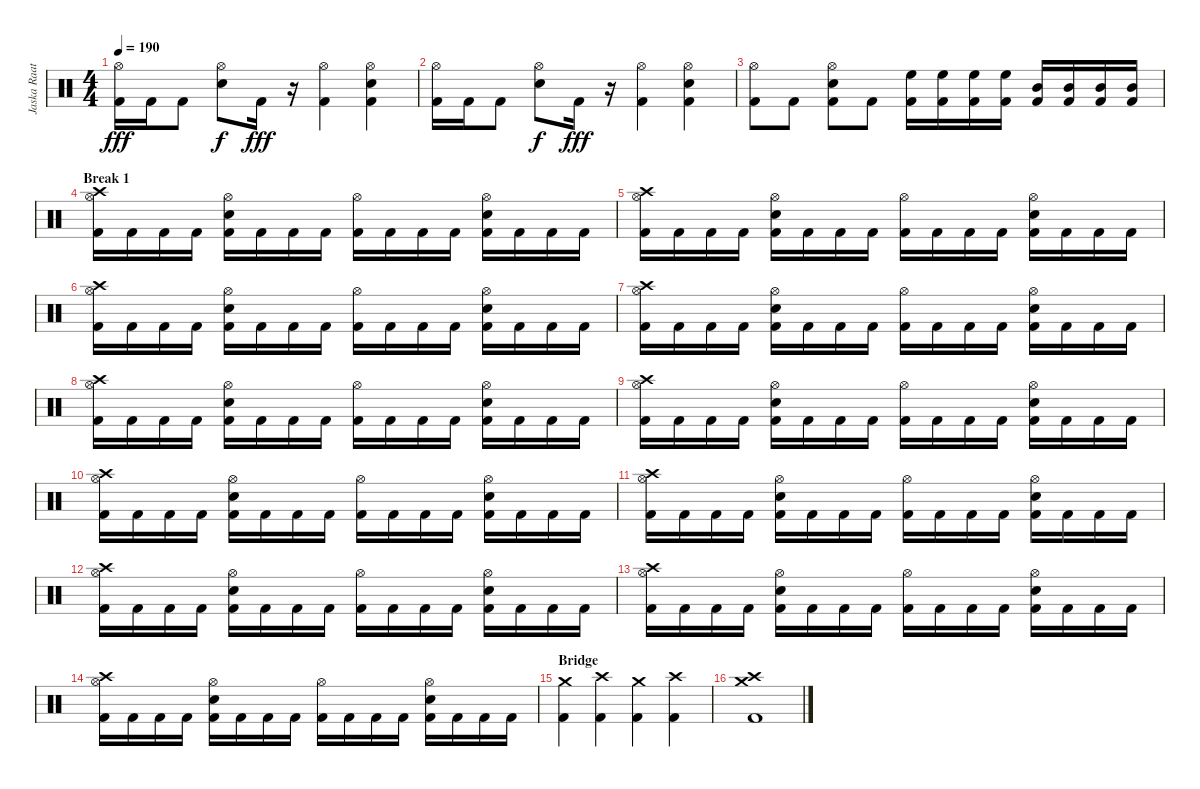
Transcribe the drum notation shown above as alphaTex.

\track ("Jaska Raatikainen (Drums)" "Jaska Raat") {instrument percussion}
\staff {score}
\articulation defaults
\ts (4 4)
\tempo 190
\clef neutral
\ks c
("Hi-Hat (open)" "Kick (hit) 2").16{dy fff} "Kick (hit) 2".16 "Kick (hit) 2".8 ("Hi-Hat (open)" "Electric Snare (hit)").8{dy f} "Kick (hit) 2".16{dy fff} r.16 ("Hi-Hat (open)" "Kick (hit) 2").4 ("Hi-Hat (open)" "Electric Snare (hit)" "Kick (hit) 2").4 |
("Hi-Hat (open)" "Kick (hit) 2").16 "Kick (hit) 2".16 "Kick (hit) 2".8 ("Hi-Hat (open)" "Electric Snare (hit)").8{dy f} "Kick (hit) 2".16{dy fff} r.16 ("Hi-Hat (open)" "Kick (hit) 2").4 ("Hi-Hat (open)" "Electric Snare (hit)" "Kick (hit) 2").4 |
("Hi-Hat (open)" "Kick (hit) 2").8 "Kick (hit) 2".8 ("Hi-Hat (open)" "Electric Snare (hit)" "Kick (hit) 2").8 "Kick (hit) 2".8 ("High Floor Tom (hit)" "Kick (hit) 2").16 ("High Floor Tom (hit)" "Kick (hit) 2").16 ("High Floor Tom (hit)" "Kick (hit) 2").16 ("High Floor Tom (hit)" "Kick (hit) 2").16 ("Mid Tom (hit)" "Kick (hit) 2").16 ("Mid Tom (hit)" "Kick (hit) 2").16 ("Mid Tom (hit)" "Kick (hit) 2").16 ("Mid Tom (hit)" "Kick (hit) 2").16 |
\section ("" "Break 1")
("Hi-Hat (open)" "Crash high (hit)" "Kick (hit) 2").16 "Kick (hit) 2".16 "Kick (hit) 2".16 "Kick (hit) 2".16 ("Hi-Hat (open)" "Electric Snare (hit)" "Kick (hit) 2").16 "Kick (hit) 2".16 "Kick (hit) 2".16 "Kick (hit) 2".16 ("Hi-Hat (open)" "Kick (hit) 2").16 "Kick (hit) 2".16 "Kick (hit) 2".16 "Kick (hit) 2".16 ("Hi-Hat (open)" "Electric Snare (hit)" "Kick (hit) 2").16 "Kick (hit) 2".16 "Kick (hit) 2".16 "Kick (hit) 2".16 |
("Hi-Hat (open)" "Crash high (hit)" "Kick (hit) 2").16 "Kick (hit) 2".16 "Kick (hit) 2".16 "Kick (hit) 2".16 ("Hi-Hat (open)" "Electric Snare (hit)" "Kick (hit) 2").16 "Kick (hit) 2".16 "Kick (hit) 2".16 "Kick (hit) 2".16 ("Hi-Hat (open)" "Kick (hit) 2").16 "Kick (hit) 2".16 "Kick (hit) 2".16 "Kick (hit) 2".16 ("Hi-Hat (open)" "Electric Snare (hit)" "Kick (hit) 2").16 "Kick (hit) 2".16 "Kick (hit) 2".16 "Kick (hit) 2".16 |
("Hi-Hat (open)" "Crash high (hit)" "Kick (hit) 2").16 "Kick (hit) 2".16 "Kick (hit) 2".16 "Kick (hit) 2".16 ("Hi-Hat (open)" "Electric Snare (hit)" "Kick (hit) 2").16 "Kick (hit) 2".16 "Kick (hit) 2".16 "Kick (hit) 2".16 ("Hi-Hat (open)" "Kick (hit) 2").16 "Kick (hit) 2".16 "Kick (hit) 2".16 "Kick (hit) 2".16 ("Hi-Hat (open)" "Electric Snare (hit)" "Kick (hit) 2").16 "Kick (hit) 2".16 "Kick (hit) 2".16 "Kick (hit) 2".16 |
("Hi-Hat (open)" "Crash high (hit)" "Kick (hit) 2").16 "Kick (hit) 2".16 "Kick (hit) 2".16 "Kick (hit) 2".16 ("Hi-Hat (open)" "Electric Snare (hit)" "Kick (hit) 2").16 "Kick (hit) 2".16 "Kick (hit) 2".16 "Kick (hit) 2".16 ("Hi-Hat (open)" "Kick (hit) 2").16 "Kick (hit) 2".16 "Kick (hit) 2".16 "Kick (hit) 2".16 ("Hi-Hat (open)" "Electric Snare (hit)" "Kick (hit) 2").16 "Kick (hit) 2".16 "Kick (hit) 2".16 "Kick (hit) 2".16 |
("Hi-Hat (open)" "Crash high (hit)" "Kick (hit) 2").16 "Kick (hit) 2".16 "Kick (hit) 2".16 "Kick (hit) 2".16 ("Hi-Hat (open)" "Electric Snare (hit)" "Kick (hit) 2").16 "Kick (hit) 2".16 "Kick (hit) 2".16 "Kick (hit) 2".16 ("Hi-Hat (open)" "Kick (hit) 2").16 "Kick (hit) 2".16 "Kick (hit) 2".16 "Kick (hit) 2".16 ("Hi-Hat (open)" "Electric Snare (hit)" "Kick (hit) 2").16 "Kick (hit) 2".16 "Kick (hit) 2".16 "Kick (hit) 2".16 |
("Hi-Hat (open)" "Crash high (hit)" "Kick (hit) 2").16 "Kick (hit) 2".16 "Kick (hit) 2".16 "Kick (hit) 2".16 ("Hi-Hat (open)" "Electric Snare (hit)" "Kick (hit) 2").16 "Kick (hit) 2".16 "Kick (hit) 2".16 "Kick (hit) 2".16 ("Hi-Hat (open)" "Kick (hit) 2").16 "Kick (hit) 2".16 "Kick (hit) 2".16 "Kick (hit) 2".16 ("Hi-Hat (open)" "Electric Snare (hit)" "Kick (hit) 2").16 "Kick (hit) 2".16 "Kick (hit) 2".16 "Kick (hit) 2".16 |
("Hi-Hat (open)" "Crash high (hit)" "Kick (hit) 2").16 "Kick (hit) 2".16 "Kick (hit) 2".16 "Kick (hit) 2".16 ("Hi-Hat (open)" "Electric Snare (hit)" "Kick (hit) 2").16 "Kick (hit) 2".16 "Kick (hit) 2".16 "Kick (hit) 2".16 ("Hi-Hat (open)" "Kick (hit) 2").16 "Kick (hit) 2".16 "Kick (hit) 2".16 "Kick (hit) 2".16 ("Hi-Hat (open)" "Electric Snare (hit)" "Kick (hit) 2").16 "Kick (hit) 2".16 "Kick (hit) 2".16 "Kick (hit) 2".16 |
("Hi-Hat (open)" "Crash high (hit)" "Kick (hit) 2").16 "Kick (hit) 2".16 "Kick (hit) 2".16 "Kick (hit) 2".16 ("Hi-Hat (open)" "Electric Snare (hit)" "Kick (hit) 2").16 "Kick (hit) 2".16 "Kick (hit) 2".16 "Kick (hit) 2".16 ("Hi-Hat (open)" "Kick (hit) 2").16 "Kick (hit) 2".16 "Kick (hit) 2".16 "Kick (hit) 2".16 ("Hi-Hat (open)" "Electric Snare (hit)" "Kick (hit) 2").16 "Kick (hit) 2".16 "Kick (hit) 2".16 "Kick (hit) 2".16 |
("Hi-Hat (open)" "Crash high (hit)" "Kick (hit) 2").16 "Kick (hit) 2".16 "Kick (hit) 2".16 "Kick (hit) 2".16 ("Hi-Hat (open)" "Electric Snare (hit)" "Kick (hit) 2").16 "Kick (hit) 2".16 "Kick (hit) 2".16 "Kick (hit) 2".16 ("Hi-Hat (open)" "Kick (hit) 2").16 "Kick (hit) 2".16 "Kick (hit) 2".16 "Kick (hit) 2".16 ("Hi-Hat (open)" "Electric Snare (hit)" "Kick (hit) 2").16 "Kick (hit) 2".16 "Kick (hit) 2".16 "Kick (hit) 2".16 |
("Hi-Hat (open)" "Crash high (hit)" "Kick (hit) 2").16 "Kick (hit) 2".16 "Kick (hit) 2".16 "Kick (hit) 2".16 ("Hi-Hat (open)" "Electric Snare (hit)" "Kick (hit) 2").16 "Kick (hit) 2".16 "Kick (hit) 2".16 "Kick (hit) 2".16 ("Hi-Hat (open)" "Kick (hit) 2").16 "Kick (hit) 2".16 "Kick (hit) 2".16 "Kick (hit) 2".16 ("Hi-Hat (open)" "Electric Snare (hit)" "Kick (hit) 2").16 "Kick (hit) 2".16 "Kick (hit) 2".16 "Kick (hit) 2".16 |
("Hi-Hat (open)" "Crash high (hit)" "Kick (hit) 2").16 "Kick (hit) 2".16 "Kick (hit) 2".16 "Kick (hit) 2".16 ("Hi-Hat (open)" "Electric Snare (hit)" "Kick (hit) 2").16 "Kick (hit) 2".16 "Kick (hit) 2".16 "Kick (hit) 2".16 ("Hi-Hat (open)" "Kick (hit) 2").16 "Kick (hit) 2".16 "Kick (hit) 2".16 "Kick (hit) 2".16 ("Hi-Hat (open)" "Electric Snare (hit)" "Kick (hit) 2").16 "Kick (hit) 2".16 "Kick (hit) 2".16 "Kick (hit) 2".16 |
\section ("" "Bridge")
("Crash medium (hit)" "Kick (hit) 2").4 ("Crash high (hit)" "Kick (hit) 2").4 ("Crash medium (hit)" "Kick (hit) 2").4 ("Crash high (hit)" "Kick (hit) 2").4 |
("Crash high (hit)" "Crash medium (hit)" "Kick (hit) 2").1
